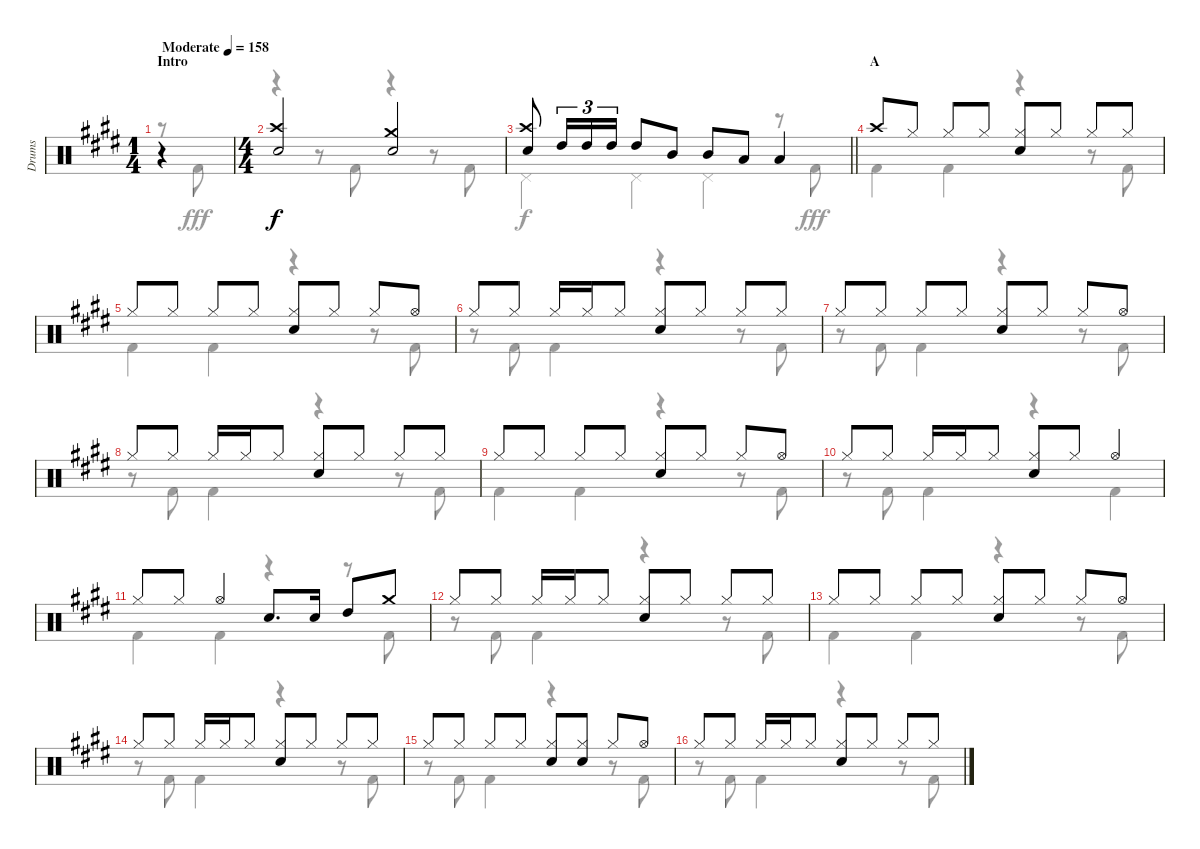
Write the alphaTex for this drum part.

\track ("Drums" "Drums") {instrument percussion}
\staff {score}
\articulation defaults
\voice
\ts (1 4)
\section ("" "Intro")
\tempo (158 "Moderate")
\clef neutral
\ks e
r.4{dy f} |
\ts (4 4)
("Crash high (hit)" "Snare (hit) 2").2 ("Crash medium (hit)" "Snare (hit) 2").2 |
\barLineRight lightlight
("Crash high (hit)" "Snare (hit) 2").8 "High Tom (hit)".16{tu (3 2)} "High Tom (hit)".16{tu (3 2)} "High Tom (hit)".16{tu (3 2)} "High Tom (hit)".8 "Mid Tom (hit)".8 "Mid Tom (hit)".8 "Low Tom (hit)".8 "Low Tom (hit)".4 |
\section ("" "A")
"Crash high (hit)".8 "Hi-Hat (closed)".8 "Hi-Hat (closed)".8 "Hi-Hat (closed)".8 ("Hi-Hat (closed)" "Snare (hit) 2").8 "Hi-Hat (closed)".8 "Hi-Hat (closed)".8 "Hi-Hat (closed)".8 |
"Hi-Hat (closed)".8 "Hi-Hat (closed)".8 "Hi-Hat (closed)".8 "Hi-Hat (closed)".8 ("Hi-Hat (closed)" "Snare (hit) 2").8 "Hi-Hat (closed)".8 "Hi-Hat (closed)".8 "Hi-Hat (open)".8 |
"Hi-Hat (closed)".8 "Hi-Hat (closed)".8 "Hi-Hat (closed)".16 "Hi-Hat (closed)".16 "Hi-Hat (closed)".8 ("Hi-Hat (closed)" "Snare (hit) 2").8 "Hi-Hat (closed)".8 "Hi-Hat (closed)".8 "Hi-Hat (closed)".8 |
"Hi-Hat (closed)".8 "Hi-Hat (closed)".8 "Hi-Hat (closed)".8 "Hi-Hat (closed)".8 ("Hi-Hat (closed)" "Snare (hit) 2").8 "Hi-Hat (closed)".8 "Hi-Hat (closed)".8 "Hi-Hat (open)".8 |
"Hi-Hat (closed)".8 "Hi-Hat (closed)".8 "Hi-Hat (closed)".16 "Hi-Hat (closed)".16 "Hi-Hat (closed)".8 ("Hi-Hat (closed)" "Snare (hit) 2").8 "Hi-Hat (closed)".8 "Hi-Hat (closed)".8 "Hi-Hat (closed)".8 |
"Hi-Hat (closed)".8 "Hi-Hat (closed)".8 "Hi-Hat (closed)".8 "Hi-Hat (closed)".8 ("Hi-Hat (closed)" "Snare (hit) 2").8 "Hi-Hat (closed)".8 "Hi-Hat (closed)".8 "Hi-Hat (open)".8 |
"Hi-Hat (closed)".8 "Hi-Hat (closed)".8 "Hi-Hat (closed)".16 "Hi-Hat (closed)".16 "Hi-Hat (closed)".8 ("Hi-Hat (closed)" "Snare (hit) 2").8 "Hi-Hat (closed)".8 "Hi-Hat (open)".4 |
"Hi-Hat (closed)".8 "Hi-Hat (closed)".8 "Hi-Hat (open)".4 "Snare (hit) 2".8{d} "Snare (hit) 2".16 "High Tom (hit)".8 "Crash medium (hit)".8 |
"Hi-Hat (closed)".8 "Hi-Hat (closed)".8 "Hi-Hat (closed)".16 "Hi-Hat (closed)".16 "Hi-Hat (closed)".8 ("Hi-Hat (closed)" "Snare (hit) 2").8 "Hi-Hat (closed)".8 "Hi-Hat (closed)".8 "Hi-Hat (closed)".8 |
"Hi-Hat (closed)".8 "Hi-Hat (closed)".8 "Hi-Hat (closed)".8 "Hi-Hat (closed)".8 ("Hi-Hat (closed)" "Snare (hit) 2").8 "Hi-Hat (closed)".8 "Hi-Hat (closed)".8 "Hi-Hat (open)".8 |
"Hi-Hat (closed)".8 "Hi-Hat (closed)".8 "Hi-Hat (closed)".16 "Hi-Hat (closed)".16 "Hi-Hat (closed)".8 ("Hi-Hat (closed)" "Snare (hit) 2").8 "Hi-Hat (closed)".8 "Hi-Hat (closed)".8 "Hi-Hat (closed)".8 |
"Hi-Hat (closed)".8 "Hi-Hat (closed)".8 "Hi-Hat (closed)".8 "Hi-Hat (closed)".8 ("Hi-Hat (closed)" "Snare (hit) 2").8 ("Hi-Hat (closed)" "Snare (hit) 2").8 "Hi-Hat (closed)".8 "Hi-Hat (open)".8 |
"Hi-Hat (closed)".8 "Hi-Hat (closed)".8 "Hi-Hat (closed)".16 "Hi-Hat (closed)".16 "Hi-Hat (closed)".8 ("Hi-Hat (closed)" "Snare (hit) 2").8 "Hi-Hat (closed)".8 "Hi-Hat (closed)".8 "Hi-Hat (closed)".8
\voice
\clef neutral
\ottava regular
\simile none
\ks e
r.8{dy fff} "Kick (hit) 2".8 |
r.4 r.8 "Kick (hit) 2".8 r.4 r.8 "Kick (hit) 2".8 |
\barLineRight lightlight "Pedal Hi-Hat (hit)".4{dy f} "Pedal Hi-Hat (hit)".4 "Pedal Hi-Hat (hit)".4
r.8 "Kick (hit) 2".8{dy fff} |
"Kick (hit) 2".4 "Kick (hit) 2".4 r.4 r.8 "Kick (hit) 2".8 |
"Kick (hit) 2".4 "Kick (hit) 2".4 r.4 r.8 "Kick (hit) 2".8 |
r.8 "Kick (hit) 2".8 "Kick (hit) 2".4 r.4 r.8 "Kick (hit) 2".8 |
r.8 "Kick (hit) 2".8 "Kick (hit) 2".4 r.4 r.8 "Kick (hit) 2".8 |
r.8 "Kick (hit) 2".8 "Kick (hit) 2".4 r.4 r.8 "Kick (hit) 2".8 |
"Kick (hit) 2".4 "Kick (hit) 2".4 r.4 r.8 "Kick (hit) 2".8 |
r.8 "Kick (hit) 2".8 "Kick (hit) 2".4 r.4 "Kick (hit) 2".4 |
"Kick (hit) 2".4 "Kick (hit) 2".4 r.4 r.8 "Kick (hit) 2".8 |
r.8 "Kick (hit) 2".8 "Kick (hit) 2".4 r.4 r.8 "Kick (hit) 2".8 |
"Kick (hit) 2".4 "Kick (hit) 2".4 r.4 r.8 "Kick (hit) 2".8 |
r.8 "Kick (hit) 2".8 "Kick (hit) 2".4 r.4 r.8 "Kick (hit) 2".8 |
r.8 "Kick (hit) 2".8 "Kick (hit) 2".4 r.4 r.8 "Kick (hit) 2".8 |
r.8 "Kick (hit) 2".8 "Kick (hit) 2".4 r.4 r.8 "Kick (hit) 2".8
